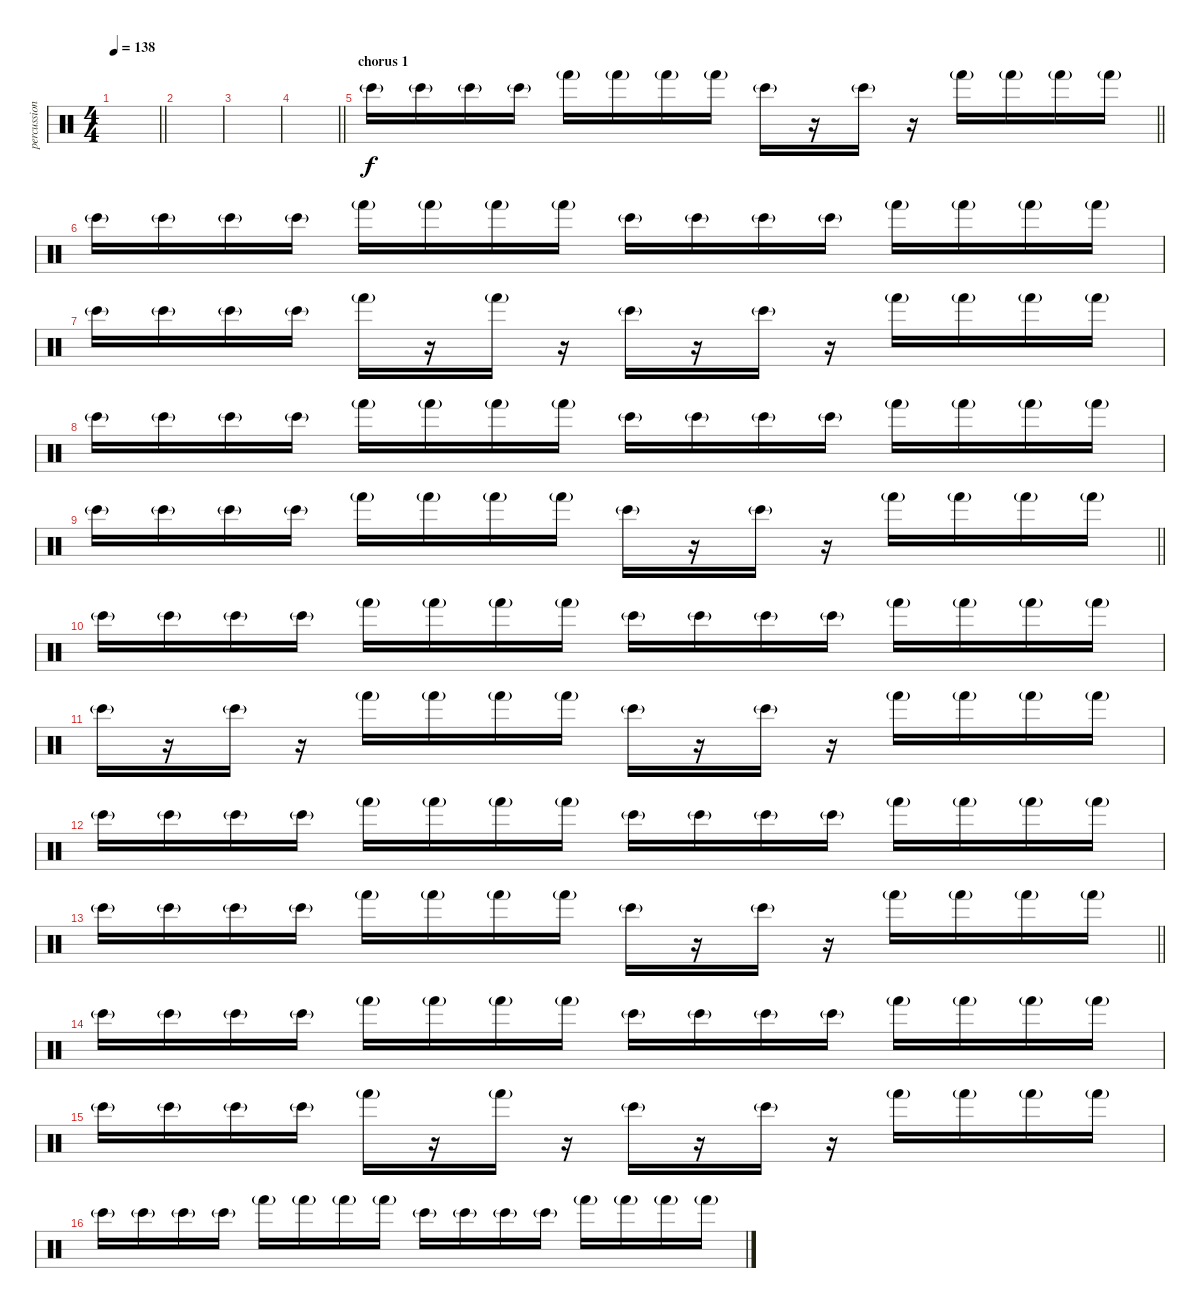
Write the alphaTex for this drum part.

\track ("percussion" "percussion") {instrument percussion}
\staff {score}
\articulation defaults
\ts (4 4)
\tempo 138
\clef neutral
\barLineRight lightlight
\ks c
|
|
|
\barLineRight lightlight
|
\section ("" "chorus 1")
\barLineRight lightlight "Bongo High (hit)"{g}.16 "Bongo High (hit)"{g}.16 "Bongo High (hit)"{g}.16 "Bongo High (hit)"{g}.16 "Hand (hit)"{g}.16 "Hand (hit)"{g}.16 "Hand (hit)"{g}.16 "Hand (hit)"{g}.16 "Bongo High (hit)"{g}.16
r.16 "Bongo High (hit)"{g}.16 r.16 "Hand (hit)"{g}.16 "Hand (hit)"{g}.16 "Hand (hit)"{g}.16 "Hand (hit)"{g}.16 |
"Bongo High (hit)"{g}.16 "Bongo High (hit)"{g}.16 "Bongo High (hit)"{g}.16 "Bongo High (hit)"{g}.16 "Hand (hit)"{g}.16 "Hand (hit)"{g}.16 "Hand (hit)"{g}.16 "Hand (hit)"{g}.16 "Bongo High (hit)"{g}.16 "Bongo High (hit)"{g}.16 "Bongo High (hit)"{g}.16 "Bongo High (hit)"{g}.16 "Hand (hit)"{g}.16 "Hand (hit)"{g}.16 "Hand (hit)"{g}.16 "Hand (hit)"{g}.16 |
"Bongo High (hit)"{g}.16 "Bongo High (hit)"{g}.16 "Bongo High (hit)"{g}.16 "Bongo High (hit)"{g}.16 "Hand (hit)"{g}.16 r.16 "Hand (hit)"{g}.16 r.16 "Bongo High (hit)"{g}.16 r.16 "Bongo High (hit)"{g}.16 r.16 "Hand (hit)"{g}.16 "Hand (hit)"{g}.16 "Hand (hit)"{g}.16 "Hand (hit)"{g}.16 |
"Bongo High (hit)"{g}.16 "Bongo High (hit)"{g}.16 "Bongo High (hit)"{g}.16 "Bongo High (hit)"{g}.16 "Hand (hit)"{g}.16 "Hand (hit)"{g}.16 "Hand (hit)"{g}.16 "Hand (hit)"{g}.16 "Bongo High (hit)"{g}.16 "Bongo High (hit)"{g}.16 "Bongo High (hit)"{g}.16 "Bongo High (hit)"{g}.16 "Hand (hit)"{g}.16 "Hand (hit)"{g}.16 "Hand (hit)"{g}.16 "Hand (hit)"{g}.16 |
\barLineRight lightlight "Bongo High (hit)"{g}.16 "Bongo High (hit)"{g}.16 "Bongo High (hit)"{g}.16 "Bongo High (hit)"{g}.16 "Hand (hit)"{g}.16 "Hand (hit)"{g}.16 "Hand (hit)"{g}.16 "Hand (hit)"{g}.16 "Bongo High (hit)"{g}.16
r.16 "Bongo High (hit)"{g}.16 r.16 "Hand (hit)"{g}.16 "Hand (hit)"{g}.16 "Hand (hit)"{g}.16 "Hand (hit)"{g}.16 |
"Bongo High (hit)"{g}.16 "Bongo High (hit)"{g}.16 "Bongo High (hit)"{g}.16 "Bongo High (hit)"{g}.16 "Hand (hit)"{g}.16 "Hand (hit)"{g}.16 "Hand (hit)"{g}.16 "Hand (hit)"{g}.16 "Bongo High (hit)"{g}.16 "Bongo High (hit)"{g}.16 "Bongo High (hit)"{g}.16 "Bongo High (hit)"{g}.16 "Hand (hit)"{g}.16 "Hand (hit)"{g}.16 "Hand (hit)"{g}.16 "Hand (hit)"{g}.16 |
"Bongo High (hit)"{g}.16 r.16 "Bongo High (hit)"{g}.16 r.16 "Hand (hit)"{g}.16 "Hand (hit)"{g}.16 "Hand (hit)"{g}.16 "Hand (hit)"{g}.16 "Bongo High (hit)"{g}.16 r.16 "Bongo High (hit)"{g}.16 r.16 "Hand (hit)"{g}.16 "Hand (hit)"{g}.16 "Hand (hit)"{g}.16 "Hand (hit)"{g}.16 |
"Bongo High (hit)"{g}.16 "Bongo High (hit)"{g}.16 "Bongo High (hit)"{g}.16 "Bongo High (hit)"{g}.16 "Hand (hit)"{g}.16 "Hand (hit)"{g}.16 "Hand (hit)"{g}.16 "Hand (hit)"{g}.16 "Bongo High (hit)"{g}.16 "Bongo High (hit)"{g}.16 "Bongo High (hit)"{g}.16 "Bongo High (hit)"{g}.16 "Hand (hit)"{g}.16 "Hand (hit)"{g}.16 "Hand (hit)"{g}.16 "Hand (hit)"{g}.16 |
\barLineRight lightlight "Bongo High (hit)"{g}.16 "Bongo High (hit)"{g}.16 "Bongo High (hit)"{g}.16 "Bongo High (hit)"{g}.16 "Hand (hit)"{g}.16 "Hand (hit)"{g}.16 "Hand (hit)"{g}.16 "Hand (hit)"{g}.16 "Bongo High (hit)"{g}.16
r.16 "Bongo High (hit)"{g}.16 r.16 "Hand (hit)"{g}.16 "Hand (hit)"{g}.16 "Hand (hit)"{g}.16 "Hand (hit)"{g}.16 |
"Bongo High (hit)"{g}.16 "Bongo High (hit)"{g}.16 "Bongo High (hit)"{g}.16 "Bongo High (hit)"{g}.16 "Hand (hit)"{g}.16 "Hand (hit)"{g}.16 "Hand (hit)"{g}.16 "Hand (hit)"{g}.16 "Bongo High (hit)"{g}.16 "Bongo High (hit)"{g}.16 "Bongo High (hit)"{g}.16 "Bongo High (hit)"{g}.16 "Hand (hit)"{g}.16 "Hand (hit)"{g}.16 "Hand (hit)"{g}.16 "Hand (hit)"{g}.16 |
"Bongo High (hit)"{g}.16 "Bongo High (hit)"{g}.16 "Bongo High (hit)"{g}.16 "Bongo High (hit)"{g}.16 "Hand (hit)"{g}.16 r.16 "Hand (hit)"{g}.16 r.16 "Bongo High (hit)"{g}.16 r.16 "Bongo High (hit)"{g}.16 r.16 "Hand (hit)"{g}.16 "Hand (hit)"{g}.16 "Hand (hit)"{g}.16 "Hand (hit)"{g}.16 |
"Bongo High (hit)"{g}.16 "Bongo High (hit)"{g}.16 "Bongo High (hit)"{g}.16 "Bongo High (hit)"{g}.16 "Hand (hit)"{g}.16 "Hand (hit)"{g}.16 "Hand (hit)"{g}.16 "Hand (hit)"{g}.16 "Bongo High (hit)"{g}.16 "Bongo High (hit)"{g}.16 "Bongo High (hit)"{g}.16 "Bongo High (hit)"{g}.16 "Hand (hit)"{g}.16 "Hand (hit)"{g}.16 "Hand (hit)"{g}.16 "Hand (hit)"{g}.16
